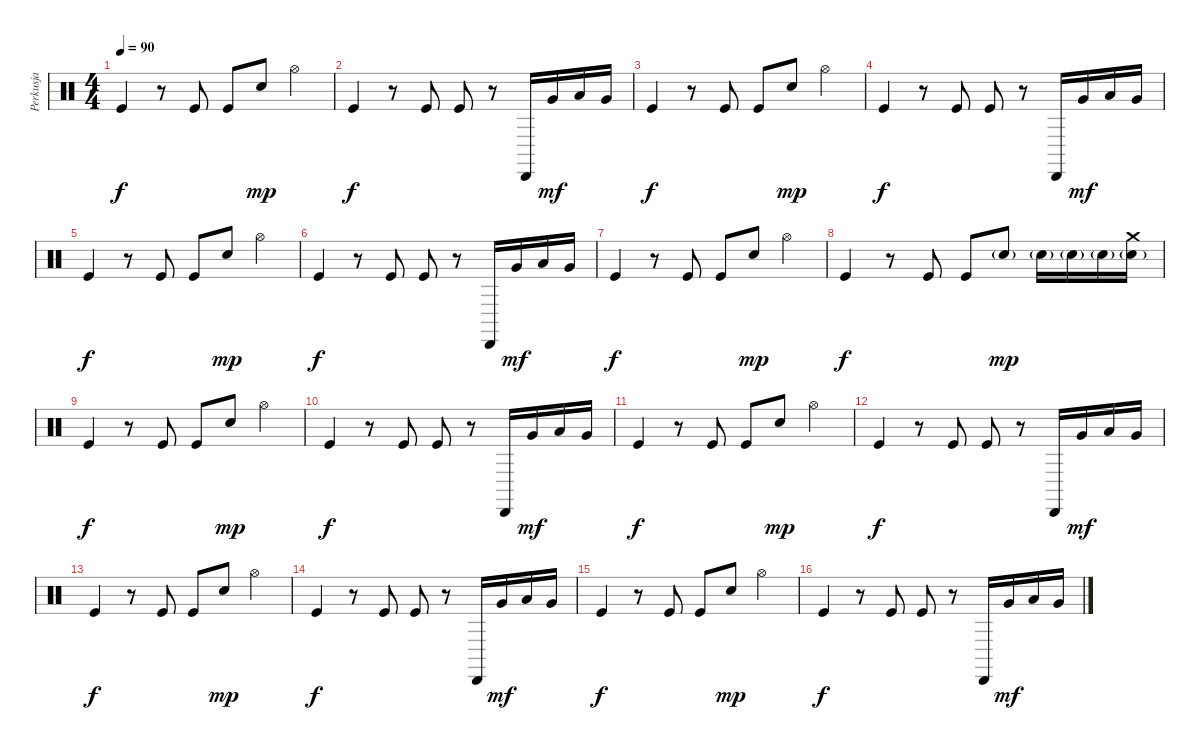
\track ("Perkusja" "Perkusja") {instrument percussion}
\staff {score}
\articulation defaults
\ts (4 4)
\tempo 90
\clef neutral
\ks c "Kick (hit)".4{dy f}
r.8 "Kick (hit)".8 "Kick (hit)".8 "Snare (hit) 2".8{dy mp} "Hi-Hat (open)".4 |
"Kick (hit)".4{dy f} r.8 "Kick (hit)".8 "Kick (hit)".8 r.8 "Cabasa (hit)"{x}.16 "Very Low Tom (hit)".16{dy mf} "Low Tom (hit)".16 "Very Low Tom (hit)".16 |
"Kick (hit)".4{dy f} r.8 "Kick (hit)".8 "Kick (hit)".8 "Snare (hit) 2".8{dy mp} "Hi-Hat (open)".4 |
"Kick (hit)".4{dy f} r.8 "Kick (hit)".8 "Kick (hit)".8 r.8 "Cabasa (hit)"{x}.16 "Very Low Tom (hit)".16{dy mf} "Low Tom (hit)".16 "Very Low Tom (hit)".16 |
"Kick (hit)".4{dy f} r.8 "Kick (hit)".8 "Kick (hit)".8 "Snare (hit) 2".8{dy mp} "Hi-Hat (open)".4 |
"Kick (hit)".4{dy f} r.8 "Kick (hit)".8 "Kick (hit)".8 r.8 "Cabasa (hit)"{x}.16 "Very Low Tom (hit)".16{dy mf} "Low Tom (hit)".16 "Very Low Tom (hit)".16 |
"Kick (hit)".4{dy f} r.8 "Kick (hit)".8 "Kick (hit)".8 "Snare (hit) 2".8{dy mp} "Hi-Hat (open)".4 |
"Kick (hit)".4{dy f} r.8 "Kick (hit)".8 "Kick (hit)".8 "Snare (hit) 2"{g}.8{dy mp} "Snare (hit) 2"{g}.16 "Snare (hit) 2"{g}.16 "Snare (hit) 2"{g}.16 ("Crash medium (hit)" "Snare (hit) 2"{g}).16 |
"Kick (hit)".4{dy f} r.8 "Kick (hit)".8 "Kick (hit)".8 "Snare (hit) 2".8{dy mp} "Hi-Hat (open)".4 |
"Kick (hit)".4{dy f} r.8 "Kick (hit)".8 "Kick (hit)".8 r.8 "Cabasa (hit)"{x}.16 "Very Low Tom (hit)".16{dy mf} "Low Tom (hit)".16 "Very Low Tom (hit)".16 |
"Kick (hit)".4{dy f} r.8 "Kick (hit)".8 "Kick (hit)".8 "Snare (hit) 2".8{dy mp} "Hi-Hat (open)".4 |
"Kick (hit)".4{dy f} r.8 "Kick (hit)".8 "Kick (hit)".8 r.8 "Cabasa (hit)"{x}.16 "Very Low Tom (hit)".16{dy mf} "Low Tom (hit)".16 "Very Low Tom (hit)".16 |
"Kick (hit)".4{dy f} r.8 "Kick (hit)".8 "Kick (hit)".8 "Snare (hit) 2".8{dy mp} "Hi-Hat (open)".4 |
"Kick (hit)".4{dy f} r.8 "Kick (hit)".8 "Kick (hit)".8 r.8 "Cabasa (hit)"{x}.16 "Very Low Tom (hit)".16{dy mf} "Low Tom (hit)".16 "Very Low Tom (hit)".16 |
"Kick (hit)".4{dy f} r.8 "Kick (hit)".8 "Kick (hit)".8 "Snare (hit) 2".8{dy mp} "Hi-Hat (open)".4 |
"Kick (hit)".4{dy f} r.8 "Kick (hit)".8 "Kick (hit)".8 r.8 "Cabasa (hit)"{x}.16 "Very Low Tom (hit)".16{dy mf} "Low Tom (hit)".16 "Very Low Tom (hit)".16
